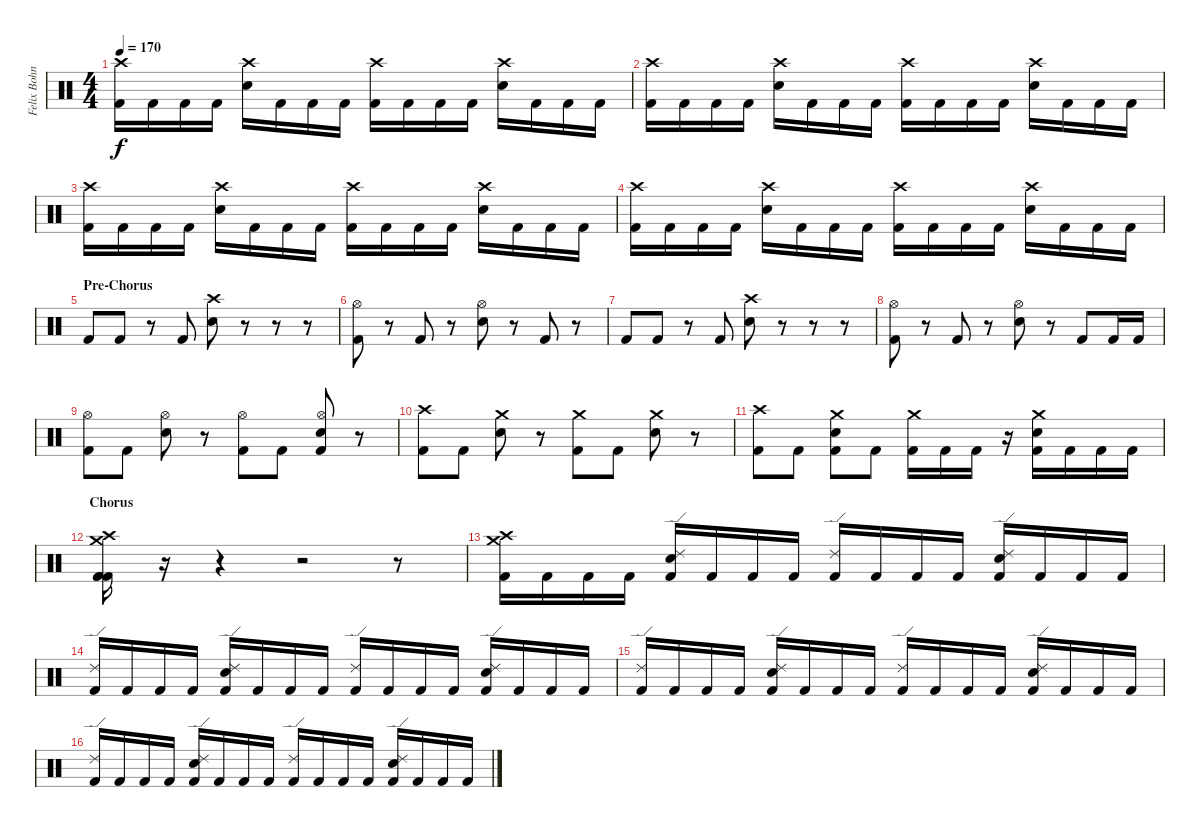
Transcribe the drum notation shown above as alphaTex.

\track ("Felix Bohnke" "Felix Bohn") {instrument percussion}
\staff {score}
\articulation defaults
\ts (4 4)
\tempo 170
\clef neutral
\ks c
("Crash high (hit)" "Kick (hit) 2").16{dy f} "Kick (hit) 2".16 "Kick (hit) 2".16 "Kick (hit) 2".16 ("Crash high (hit)" "Electric Snare (hit)").16 "Kick (hit) 2".16 "Kick (hit) 2".16 "Kick (hit) 2".16 ("Crash high (hit)" "Kick (hit) 2").16 "Kick (hit) 2".16 "Kick (hit) 2".16 "Kick (hit) 2".16 ("Crash high (hit)" "Electric Snare (hit)").16 "Kick (hit) 2".16 "Kick (hit) 2".16 "Kick (hit) 2".16 |
("Crash high (hit)" "Kick (hit) 2").16 "Kick (hit) 2".16 "Kick (hit) 2".16 "Kick (hit) 2".16 ("Crash high (hit)" "Electric Snare (hit)").16 "Kick (hit) 2".16 "Kick (hit) 2".16 "Kick (hit) 2".16 ("Crash high (hit)" "Kick (hit) 2").16 "Kick (hit) 2".16 "Kick (hit) 2".16 "Kick (hit) 2".16 ("Crash high (hit)" "Electric Snare (hit)").16 "Kick (hit) 2".16 "Kick (hit) 2".16 "Kick (hit) 2".16 |
("Crash high (hit)" "Kick (hit) 2").16 "Kick (hit) 2".16 "Kick (hit) 2".16 "Kick (hit) 2".16 ("Crash high (hit)" "Electric Snare (hit)").16 "Kick (hit) 2".16 "Kick (hit) 2".16 "Kick (hit) 2".16 ("Crash high (hit)" "Kick (hit) 2").16 "Kick (hit) 2".16 "Kick (hit) 2".16 "Kick (hit) 2".16 ("Crash high (hit)" "Electric Snare (hit)").16 "Kick (hit) 2".16 "Kick (hit) 2".16 "Kick (hit) 2".16 |
("Crash high (hit)" "Kick (hit) 2").16 "Kick (hit) 2".16 "Kick (hit) 2".16 "Kick (hit) 2".16 ("Crash high (hit)" "Electric Snare (hit)").16 "Kick (hit) 2".16 "Kick (hit) 2".16 "Kick (hit) 2".16 ("Crash high (hit)" "Kick (hit) 2").16 "Kick (hit) 2".16 "Kick (hit) 2".16 "Kick (hit) 2".16 ("Crash high (hit)" "Electric Snare (hit)").16 "Kick (hit) 2".16 "Kick (hit) 2".16 "Kick (hit) 2".16 |
\section ("" "Pre-Chorus")
"Kick (hit) 2".8 "Kick (hit) 2".8 r.8 "Kick (hit) 2".8 ("Crash high (hit)" "Electric Snare (hit)").8 r.8 r.8 r.8 |
("Hi-Hat (open)" "Kick (hit) 2").8 r.8 "Kick (hit) 2".8 r.8 ("Hi-Hat (open)" "Electric Snare (hit)").8 r.8 "Kick (hit) 2".8 r.8 |
"Kick (hit) 2".8 "Kick (hit) 2".8 r.8 "Kick (hit) 2".8 ("Crash high (hit)" "Electric Snare (hit)").8 r.8 r.8 r.8 |
("Hi-Hat (open)" "Kick (hit) 2").8 r.8 "Kick (hit) 2".8 r.8 ("Hi-Hat (open)" "Electric Snare (hit)").8 r.8 "Kick (hit) 2".8 "Kick (hit) 2".16 "Kick (hit) 2".16 |
("Hi-Hat (open)" "Kick (hit) 2").8 "Kick (hit) 2".8 ("Hi-Hat (open)" "Snare (hit) 2").8 r.8 ("Hi-Hat (open)" "Kick (hit) 2").8 "Kick (hit) 2".8 ("Hi-Hat (open)" "Snare (hit) 2" "Kick (hit) 2").8 r.8 |
("Crash high (hit)" "Kick (hit) 2").8 "Kick (hit) 2".8 ("Crash medium (hit)" "Snare (hit) 2").8 r.8 ("Crash medium (hit)" "Kick (hit) 2").8 "Kick (hit) 2".8 ("Crash medium (hit)" "Snare (hit) 2").8 r.8 |
("Crash high (hit)" "Kick (hit) 2").8 "Kick (hit) 2".8 ("Crash medium (hit)" "Snare (hit) 2" "Kick (hit) 2").8 "Kick (hit) 2".8 ("Crash medium (hit)" "Kick (hit) 2").16 "Kick (hit) 2".16 "Kick (hit) 2".16 r.16 ("Crash medium (hit)" "Snare (hit) 2" "Kick (hit) 2").16 "Kick (hit) 2".16 "Kick (hit) 2".16 "Kick (hit) 2".16 |
\section ("" "Chorus")
("Crash high (hit)" "Crash medium (hit)" "Kick (hit) 2" "Kick (hit) 2" "Kick (hit) 2").16 r.16 r.4 r.2 r.8 |
("Crash high (hit)" "Crash medium (hit)" "Kick (hit) 2").16 "Kick (hit) 2".16 "Kick (hit) 2".16 "Kick (hit) 2".16 ("Ride (edge) 2" "Snare (hit) 2" "Kick (hit) 2").16 "Kick (hit) 2".16 "Kick (hit) 2".16 "Kick (hit) 2".16 ("Ride (edge) 2" "Kick (hit) 2").16 "Kick (hit) 2".16 "Kick (hit) 2".16 "Kick (hit) 2".16 ("Ride (edge) 2" "Snare (hit) 2" "Kick (hit) 2").16 "Kick (hit) 2".16 "Kick (hit) 2".16 "Kick (hit) 2".16 |
("Ride (edge) 2" "Kick (hit) 2").16 "Kick (hit) 2".16 "Kick (hit) 2".16 "Kick (hit) 2".16 ("Ride (edge) 2" "Snare (hit) 2" "Kick (hit) 2").16 "Kick (hit) 2".16 "Kick (hit) 2".16 "Kick (hit) 2".16 ("Ride (edge) 2" "Kick (hit) 2").16 "Kick (hit) 2".16 "Kick (hit) 2".16 "Kick (hit) 2".16 ("Ride (edge) 2" "Snare (hit) 2" "Kick (hit) 2").16 "Kick (hit) 2".16 "Kick (hit) 2".16 "Kick (hit) 2".16 |
("Ride (edge) 2" "Kick (hit) 2").16 "Kick (hit) 2".16 "Kick (hit) 2".16 "Kick (hit) 2".16 ("Ride (edge) 2" "Snare (hit) 2" "Kick (hit) 2").16 "Kick (hit) 2".16 "Kick (hit) 2".16 "Kick (hit) 2".16 ("Ride (edge) 2" "Kick (hit) 2").16 "Kick (hit) 2".16 "Kick (hit) 2".16 "Kick (hit) 2".16 ("Ride (edge) 2" "Snare (hit) 2" "Kick (hit) 2").16 "Kick (hit) 2".16 "Kick (hit) 2".16 "Kick (hit) 2".16 |
("Ride (edge) 2" "Kick (hit) 2").16 "Kick (hit) 2".16 "Kick (hit) 2".16 "Kick (hit) 2".16 ("Ride (edge) 2" "Snare (hit) 2" "Kick (hit) 2").16 "Kick (hit) 2".16 "Kick (hit) 2".16 "Kick (hit) 2".16 ("Ride (edge) 2" "Kick (hit) 2").16 "Kick (hit) 2".16 "Kick (hit) 2".16 "Kick (hit) 2".16 ("Ride (edge) 2" "Snare (hit) 2" "Kick (hit) 2").16 "Kick (hit) 2".16 "Kick (hit) 2".16 "Kick (hit) 2".16
